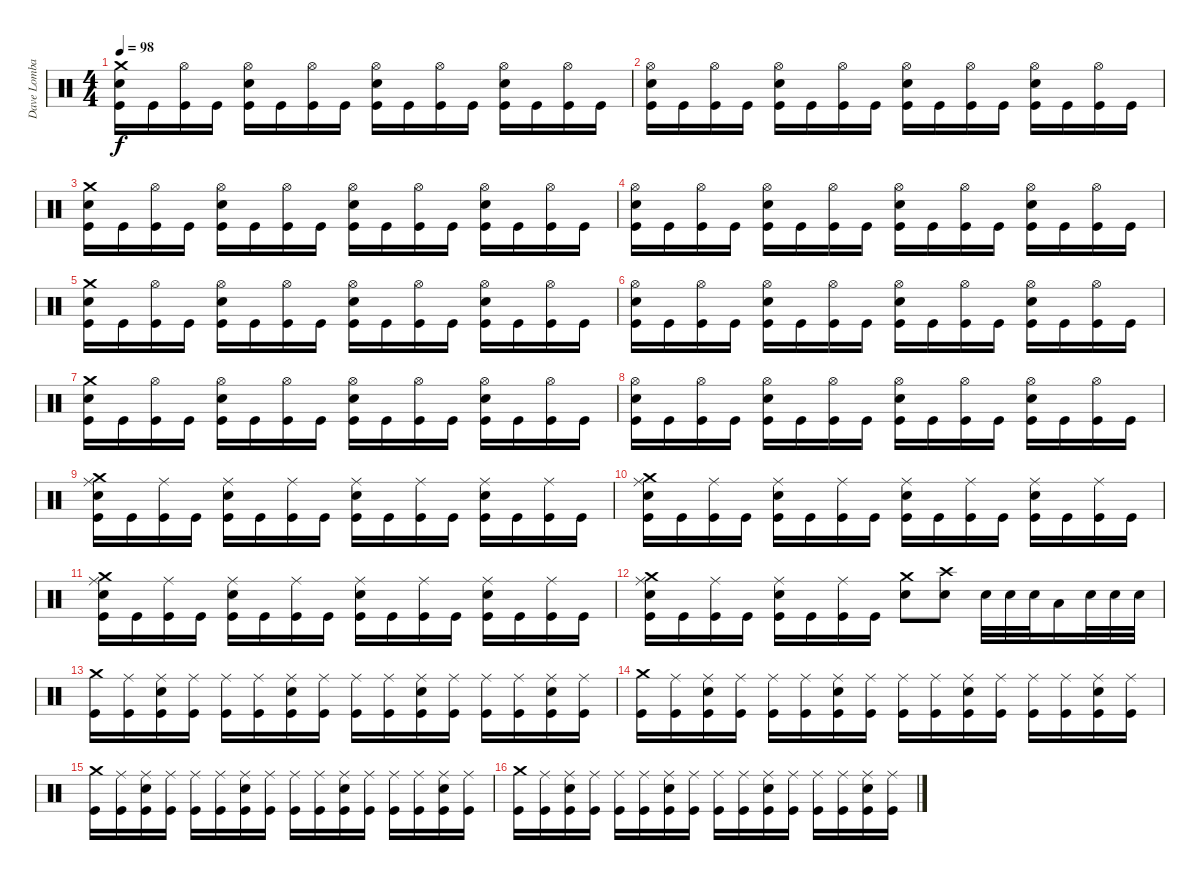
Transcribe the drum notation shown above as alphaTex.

\track ("Dave Lombardo (Drum)" "Dave Lomba") {instrument percussion}
\staff {score}
\articulation defaults
\ts (4 4)
\tempo 98
\clef neutral
\ks c
("Snare (hit) 2" "Crash medium (hit)" "Kick (hit)").16{dy f} "Kick (hit)".16 ("Hi-Hat (open)" "Kick (hit)").16 "Kick (hit)".16 ("Snare (hit) 2" "Hi-Hat (open)" "Kick (hit)").16 "Kick (hit)".16 ("Hi-Hat (open)" "Kick (hit)").16 "Kick (hit)".16 ("Snare (hit) 2" "Hi-Hat (open)" "Kick (hit)").16 "Kick (hit)".16 ("Hi-Hat (open)" "Kick (hit)").16 "Kick (hit)".16 ("Snare (hit) 2" "Hi-Hat (open)" "Kick (hit)").16 "Kick (hit)".16 ("Hi-Hat (open)" "Kick (hit)").16 "Kick (hit)".16 |
("Snare (hit) 2" "Hi-Hat (open)" "Kick (hit)").16 "Kick (hit)".16 ("Hi-Hat (open)" "Kick (hit)").16 "Kick (hit)".16 ("Snare (hit) 2" "Hi-Hat (open)" "Kick (hit)").16 "Kick (hit)".16 ("Hi-Hat (open)" "Kick (hit)").16 "Kick (hit)".16 ("Snare (hit) 2" "Hi-Hat (open)" "Kick (hit)").16 "Kick (hit)".16 ("Hi-Hat (open)" "Kick (hit)").16 "Kick (hit)".16 ("Snare (hit) 2" "Hi-Hat (open)" "Kick (hit)").16 "Kick (hit)".16 ("Hi-Hat (open)" "Kick (hit)").16 "Kick (hit)".16 |
("Snare (hit) 2" "Crash medium (hit)" "Kick (hit)").16 "Kick (hit)".16 ("Hi-Hat (open)" "Kick (hit)").16 "Kick (hit)".16 ("Snare (hit) 2" "Hi-Hat (open)" "Kick (hit)").16 "Kick (hit)".16 ("Hi-Hat (open)" "Kick (hit)").16 "Kick (hit)".16 ("Snare (hit) 2" "Hi-Hat (open)" "Kick (hit)").16 "Kick (hit)".16 ("Hi-Hat (open)" "Kick (hit)").16 "Kick (hit)".16 ("Snare (hit) 2" "Hi-Hat (open)" "Kick (hit)").16 "Kick (hit)".16 ("Hi-Hat (open)" "Kick (hit)").16 "Kick (hit)".16 |
("Snare (hit) 2" "Hi-Hat (open)" "Kick (hit)").16 "Kick (hit)".16 ("Hi-Hat (open)" "Kick (hit)").16 "Kick (hit)".16 ("Snare (hit) 2" "Hi-Hat (open)" "Kick (hit)").16 "Kick (hit)".16 ("Hi-Hat (open)" "Kick (hit)").16 "Kick (hit)".16 ("Snare (hit) 2" "Hi-Hat (open)" "Kick (hit)").16 "Kick (hit)".16 ("Hi-Hat (open)" "Kick (hit)").16 "Kick (hit)".16 ("Snare (hit) 2" "Hi-Hat (open)" "Kick (hit)").16 "Kick (hit)".16 ("Hi-Hat (open)" "Kick (hit)").16 "Kick (hit)".16 |
("Snare (hit) 2" "Crash medium (hit)" "Kick (hit)").16 "Kick (hit)".16 ("Hi-Hat (open)" "Kick (hit)").16 "Kick (hit)".16 ("Snare (hit) 2" "Hi-Hat (open)" "Kick (hit)").16 "Kick (hit)".16 ("Hi-Hat (open)" "Kick (hit)").16 "Kick (hit)".16 ("Snare (hit) 2" "Hi-Hat (open)" "Kick (hit)").16 "Kick (hit)".16 ("Hi-Hat (open)" "Kick (hit)").16 "Kick (hit)".16 ("Snare (hit) 2" "Hi-Hat (open)" "Kick (hit)").16 "Kick (hit)".16 ("Hi-Hat (open)" "Kick (hit)").16 "Kick (hit)".16 |
("Snare (hit) 2" "Hi-Hat (open)" "Kick (hit)").16 "Kick (hit)".16 ("Hi-Hat (open)" "Kick (hit)").16 "Kick (hit)".16 ("Snare (hit) 2" "Hi-Hat (open)" "Kick (hit)").16 "Kick (hit)".16 ("Hi-Hat (open)" "Kick (hit)").16 "Kick (hit)".16 ("Snare (hit) 2" "Hi-Hat (open)" "Kick (hit)").16 "Kick (hit)".16 ("Hi-Hat (open)" "Kick (hit)").16 "Kick (hit)".16 ("Snare (hit) 2" "Hi-Hat (open)" "Kick (hit)").16 "Kick (hit)".16 ("Hi-Hat (open)" "Kick (hit)").16 "Kick (hit)".16 |
("Snare (hit) 2" "Crash medium (hit)" "Kick (hit)").16 "Kick (hit)".16 ("Hi-Hat (open)" "Kick (hit)").16 "Kick (hit)".16 ("Snare (hit) 2" "Hi-Hat (open)" "Kick (hit)").16 "Kick (hit)".16 ("Hi-Hat (open)" "Kick (hit)").16 "Kick (hit)".16 ("Snare (hit) 2" "Hi-Hat (open)" "Kick (hit)").16 "Kick (hit)".16 ("Hi-Hat (open)" "Kick (hit)").16 "Kick (hit)".16 ("Snare (hit) 2" "Hi-Hat (open)" "Kick (hit)").16 "Kick (hit)".16 ("Hi-Hat (open)" "Kick (hit)").16 "Kick (hit)".16 |
("Snare (hit) 2" "Hi-Hat (open)" "Kick (hit)").16 "Kick (hit)".16 ("Hi-Hat (open)" "Kick (hit)").16 "Kick (hit)".16 ("Snare (hit) 2" "Hi-Hat (open)" "Kick (hit)").16 "Kick (hit)".16 ("Hi-Hat (open)" "Kick (hit)").16 "Kick (hit)".16 ("Snare (hit) 2" "Hi-Hat (open)" "Kick (hit)").16 "Kick (hit)".16 ("Hi-Hat (open)" "Kick (hit)").16 "Kick (hit)".16 ("Snare (hit) 2" "Hi-Hat (open)" "Kick (hit)").16 "Kick (hit)".16 ("Hi-Hat (open)" "Kick (hit)").16 "Kick (hit)".16 |
("Crash medium (hit)" "Snare (hit) 2" "Ride (middle)" "Kick (hit)").16 "Kick (hit)".16 ("Ride (middle)" "Kick (hit)").16 "Kick (hit)".16 ("Snare (hit) 2" "Ride (middle)" "Kick (hit)").16 "Kick (hit)".16 ("Ride (middle)" "Kick (hit)").16 "Kick (hit)".16 ("Snare (hit) 2" "Ride (middle)" "Kick (hit)").16 "Kick (hit)".16 ("Ride (middle)" "Kick (hit)").16 "Kick (hit)".16 ("Snare (hit) 2" "Ride (middle)" "Kick (hit)").16 "Kick (hit)".16 ("Ride (middle)" "Kick (hit)").16 "Kick (hit)".16 |
("Crash medium (hit)" "Snare (hit) 2" "Ride (middle)" "Kick (hit)").16 "Kick (hit)".16 ("Ride (middle)" "Kick (hit)").16 "Kick (hit)".16 ("Snare (hit) 2" "Ride (middle)" "Kick (hit)").16 "Kick (hit)".16 ("Ride (middle)" "Kick (hit)").16 "Kick (hit)".16 ("Snare (hit) 2" "Ride (middle)" "Kick (hit)").16 "Kick (hit)".16 ("Ride (middle)" "Kick (hit)").16 "Kick (hit)".16 ("Snare (hit) 2" "Ride (middle)" "Kick (hit)").16 "Kick (hit)".16 ("Ride (middle)" "Kick (hit)").16 "Kick (hit)".16 |
("Crash medium (hit)" "Snare (hit) 2" "Ride (middle)" "Kick (hit)").16 "Kick (hit)".16 ("Ride (middle)" "Kick (hit)").16 "Kick (hit)".16 ("Snare (hit) 2" "Ride (middle)" "Kick (hit)").16 "Kick (hit)".16 ("Ride (middle)" "Kick (hit)").16 "Kick (hit)".16 ("Snare (hit) 2" "Ride (middle)" "Kick (hit)").16 "Kick (hit)".16 ("Ride (middle)" "Kick (hit)").16 "Kick (hit)".16 ("Snare (hit) 2" "Ride (middle)" "Kick (hit)").16 "Kick (hit)".16 ("Ride (middle)" "Kick (hit)").16 "Kick (hit)".16 |
("Crash medium (hit)" "Snare (hit) 2" "Ride (middle)" "Kick (hit)").16 "Kick (hit)".16 ("Ride (middle)" "Kick (hit)").16 "Kick (hit)".16 ("Snare (hit) 2" "Ride (middle)" "Kick (hit)").16 "Kick (hit)".16 ("Ride (middle)" "Kick (hit)").16 "Kick (hit)".16 ("Snare (hit) 2" "Crash medium (hit)").8 ("Crash high (hit)" "Snare (hit) 2").8 "Snare (hit) 2".32 "Snare (hit) 2".32 "Snare (hit) 2".32 "Low Tom (hit)".16 "Snare (hit) 2".32 "Snare (hit) 2".32 "Snare (hit) 2".32 |
("Crash medium (hit)" "Kick (hit)").16 ("Ride (middle)" "Kick (hit)").16 ("Snare (hit) 2" "Ride (middle)" "Kick (hit)").16 ("Ride (middle)" "Kick (hit)").16 ("Ride (middle)" "Kick (hit)").16 ("Ride (middle)" "Kick (hit)").16 ("Snare (hit) 2" "Ride (middle)" "Kick (hit)").16 ("Ride (middle)" "Kick (hit)").16 ("Ride (middle)" "Kick (hit)").16 ("Ride (middle)" "Kick (hit)").16 ("Snare (hit) 2" "Ride (middle)" "Kick (hit)").16 ("Ride (middle)" "Kick (hit)").16 ("Ride (middle)" "Kick (hit)").16 ("Ride (middle)" "Kick (hit)").16 ("Snare (hit) 2" "Ride (middle)" "Kick (hit)").16 ("Ride (middle)" "Kick (hit)").16 |
("Crash medium (hit)" "Kick (hit)").16 ("Ride (middle)" "Kick (hit)").16 ("Snare (hit) 2" "Ride (middle)" "Kick (hit)").16 ("Ride (middle)" "Kick (hit)").16 ("Ride (middle)" "Kick (hit)").16 ("Ride (middle)" "Kick (hit)").16 ("Snare (hit) 2" "Ride (middle)" "Kick (hit)").16 ("Ride (middle)" "Kick (hit)").16 ("Ride (middle)" "Kick (hit)").16 ("Ride (middle)" "Kick (hit)").16 ("Snare (hit) 2" "Ride (middle)" "Kick (hit)").16 ("Ride (middle)" "Kick (hit)").16 ("Ride (middle)" "Kick (hit)").16 ("Ride (middle)" "Kick (hit)").16 ("Snare (hit) 2" "Ride (middle)" "Kick (hit)").16 ("Ride (middle)" "Kick (hit)").16 |
("Crash medium (hit)" "Kick (hit)").16 ("Ride (middle)" "Kick (hit)").16 ("Snare (hit) 2" "Ride (middle)" "Kick (hit)").16 ("Ride (middle)" "Kick (hit)").16 ("Ride (middle)" "Kick (hit)").16 ("Ride (middle)" "Kick (hit)").16 ("Snare (hit) 2" "Ride (middle)" "Kick (hit)").16 ("Ride (middle)" "Kick (hit)").16 ("Ride (middle)" "Kick (hit)").16 ("Ride (middle)" "Kick (hit)").16 ("Snare (hit) 2" "Ride (middle)" "Kick (hit)").16 ("Ride (middle)" "Kick (hit)").16 ("Ride (middle)" "Kick (hit)").16 ("Ride (middle)" "Kick (hit)").16 ("Snare (hit) 2" "Ride (middle)" "Kick (hit)").16 ("Ride (middle)" "Kick (hit)").16 |
("Crash medium (hit)" "Kick (hit)").16 ("Ride (middle)" "Kick (hit)").16 ("Snare (hit) 2" "Ride (middle)" "Kick (hit)").16 ("Ride (middle)" "Kick (hit)").16 ("Ride (middle)" "Kick (hit)").16 ("Ride (middle)" "Kick (hit)").16 ("Snare (hit) 2" "Ride (middle)" "Kick (hit)").16 ("Ride (middle)" "Kick (hit)").16 ("Ride (middle)" "Kick (hit)").16 ("Ride (middle)" "Kick (hit)").16 ("Snare (hit) 2" "Ride (middle)" "Kick (hit)").16 ("Ride (middle)" "Kick (hit)").16 ("Ride (middle)" "Kick (hit)").16 ("Ride (middle)" "Kick (hit)").16 ("Snare (hit) 2" "Ride (middle)" "Kick (hit)").16 ("Ride (middle)" "Kick (hit)").16
